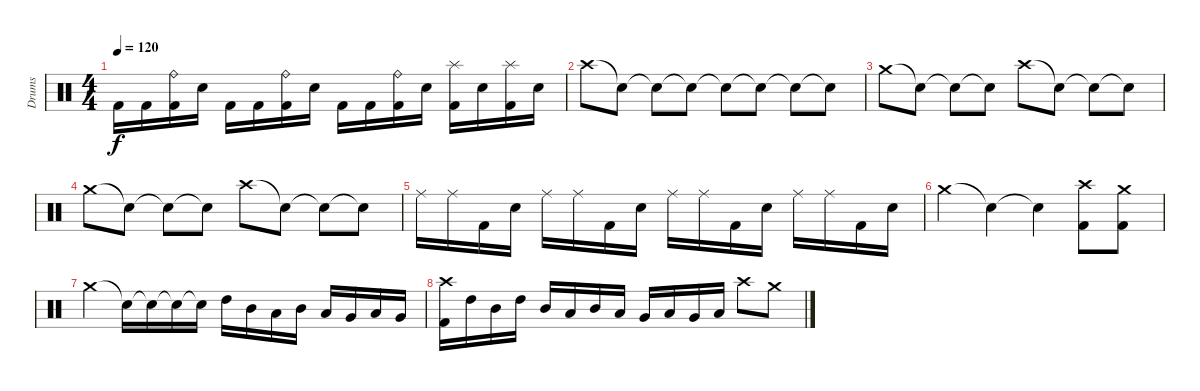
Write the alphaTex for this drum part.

\track ("Drums" "Drums") {instrument percussion}
\staff {score}
\articulation defaults
\ts (4 4)
\tempo 120
\clef neutral
\ks c "Kick (hit) 2".16{dy f} "Kick (hit) 2".16
("Ride (bell)" "Kick (hit) 2").16 "Electric Snare (hit)".16 "Kick (hit) 2".16 "Kick (hit) 2".16 ("Ride (bell)" "Kick (hit) 2").16 "Electric Snare (hit)".16 "Kick (hit) 2".16 "Kick (hit) 2".16 ("Ride (bell)" "Kick (hit) 2").16 "Electric Snare (hit)".16 ("Splash (hit)" "Kick (hit) 2").16 "Electric Snare (hit)".16 ("Splash (hit)" "Kick (hit) 2").16 "Electric Snare (hit)".16 |
"Crash high (hit)".8 "Snare (hit)"{t}.8 "Snare (hit)"{t}.8 "Snare (hit)"{t}.8 "Snare (hit)"{t}.8 "Snare (hit)"{t}.8 "Snare (hit)"{t}.8 "Snare (hit)"{t}.8 |
"Crash medium (hit)".8 "Snare (hit)"{t}.8 "Snare (hit)"{t}.8 "Snare (hit)"{t}.8 "Crash high (hit)".8 "Snare (hit)"{t}.8 "Snare (hit)"{t}.8 "Snare (hit)"{t}.8 |
"Crash medium (hit)".8 "Snare (hit)"{t}.8 "Snare (hit)"{t}.8 "Snare (hit)"{t}.8 "Crash high (hit)".8 "Snare (hit)"{t}.8 "Snare (hit)"{t}.8 "Snare (hit)"{t}.8 |
"Ride (middle)".16 "Ride (middle)".16 "Kick (hit) 2".16 "Electric Snare (hit)".16 "Ride (middle)".16 "Ride (middle)".16 "Kick (hit) 2".16 "Electric Snare (hit)".16 "Ride (middle)".16 "Ride (middle)".16 "Kick (hit) 2".16 "Electric Snare (hit)".16 "Ride (middle)".16 "Ride (middle)".16 "Kick (hit) 2".16 "Electric Snare (hit)".16 |
"Crash medium (hit)".4 "Snare (hit)"{t}.4 "Snare (hit)"{t}.4 ("Crash high (hit)" "Kick (hit) 2").8 ("Crash medium (hit)" "Kick (hit) 2").8 |
"Crash medium (hit)".4 "Snare (hit)"{t}.16 "Snare (hit)"{t}.16 "Snare (hit)"{t}.16 "Snare (hit)"{t}.16 "High Tom (hit)".16 "Mid Tom (hit)".16 "Low Tom (hit)".16 "Mid Tom (hit)".16 "Low Tom (hit)".16 "Very Low Tom (hit)".16 "Low Tom (hit)".16 "Very Low Tom (hit)".16 |
("Crash high (hit)" "Kick (hit) 2").16 "High Tom (hit)".16 "Mid Tom (hit)".16 "High Tom (hit)".16 "Mid Tom (hit)".16 "Low Tom (hit)".16 "Mid Tom (hit)".16 "Low Tom (hit)".16 "Very Low Tom (hit)".16 "Low Tom (hit)".16 "Very Low Tom (hit)".16 "Low Floor Tom (hit)".16 "Crash high (hit)".8 "Crash medium (hit)".8
